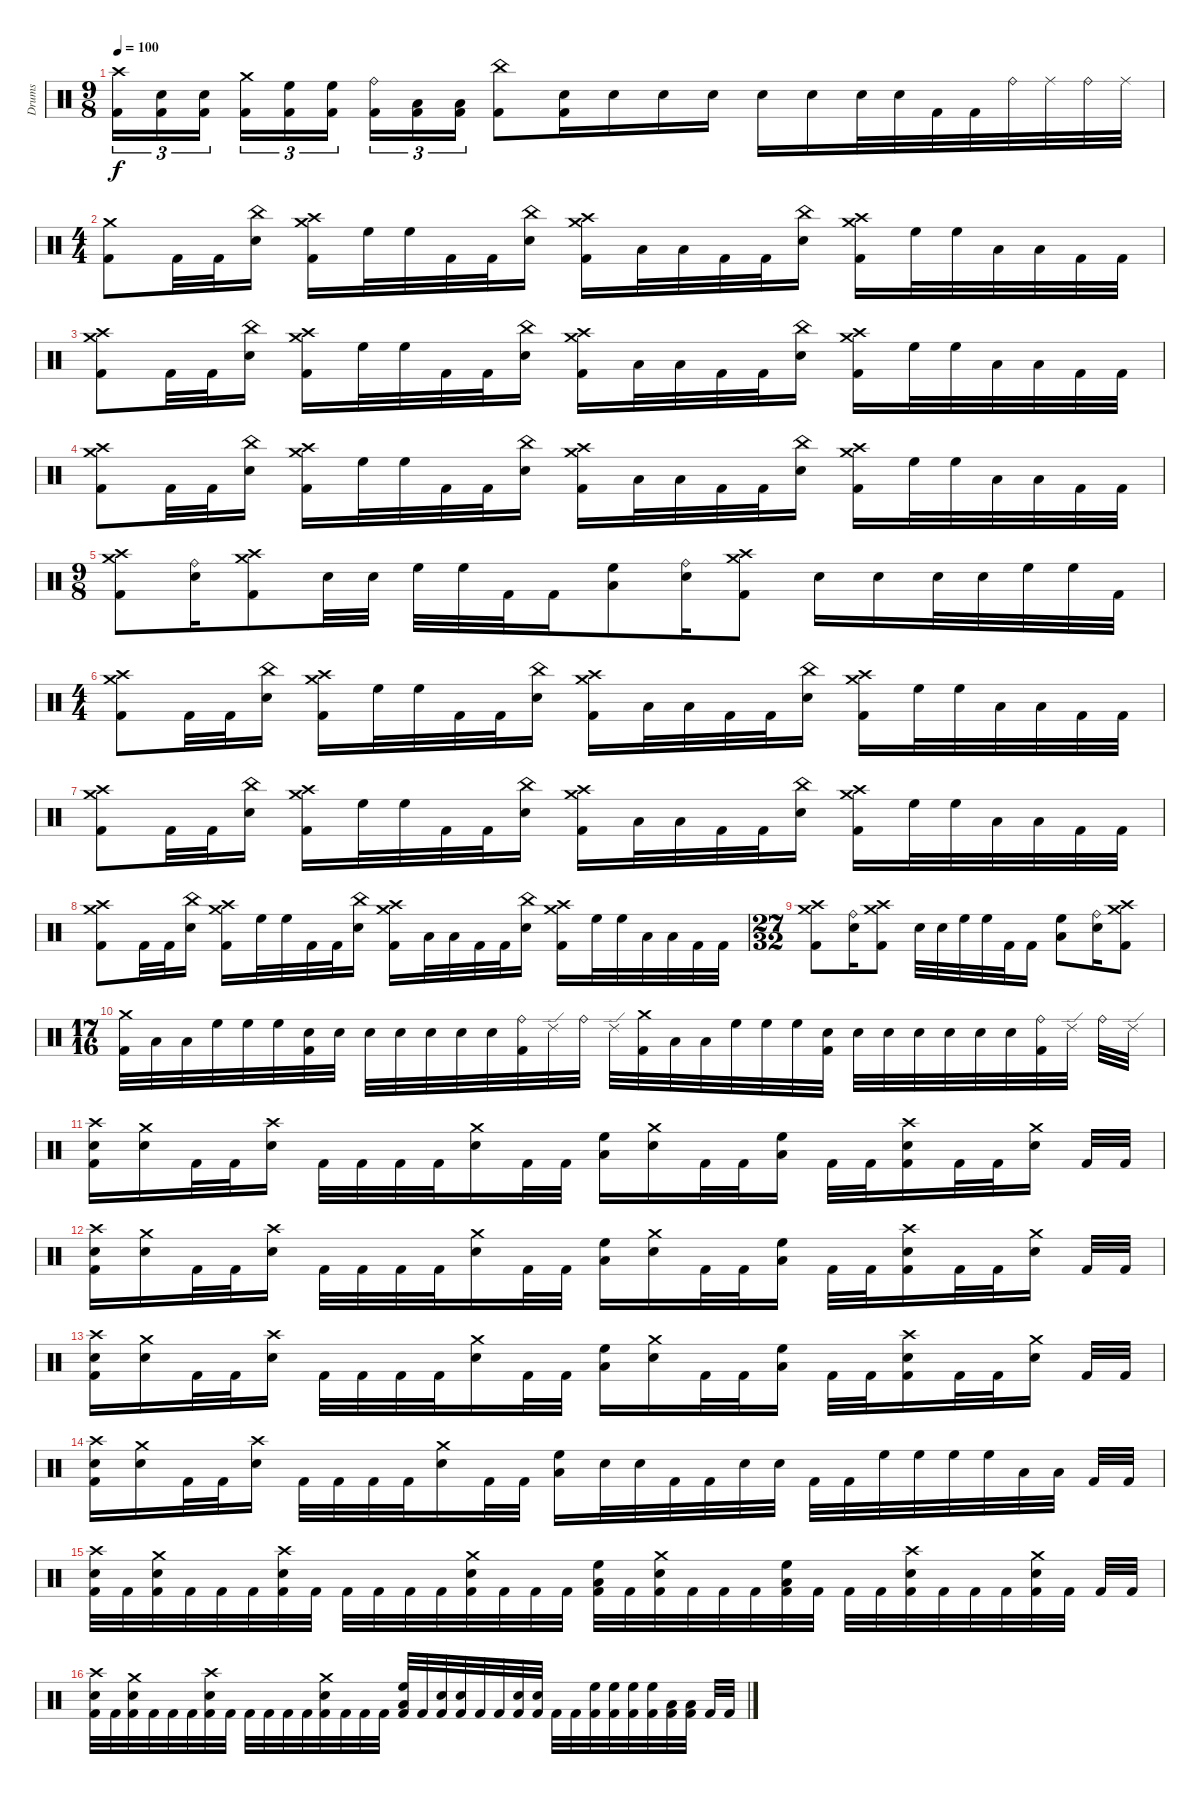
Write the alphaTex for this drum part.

\track ("Drums" "Drums") {instrument percussion}
\staff {score}
\articulation defaults
\ts (9 8)
\tempo 100
\clef neutral
\ks c
("Kick (hit) 2" "Crash high (hit)").16{tu (3 2) dy f} ("Kick (hit) 2" "Electric Snare (hit)").16{tu (3 2)} ("Kick (hit) 2" "Electric Snare (hit)").16{tu (3 2) beam splitsecondary} ("Crash medium (hit)" "Kick (hit) 2").16{tu (3 2)} ("High Floor Tom (hit)" "Kick (hit) 2").16{tu (3 2)} ("High Floor Tom (hit)" "Kick (hit) 2").16{tu (3 2) beam splitsecondary} ("Kick (hit) 2" "Ride (bell)").16{tu (3 2)} ("Low Tom (hit)" "Kick (hit) 2").16{tu (3 2)} ("Low Tom (hit)" "Kick (hit) 2").16{tu (3 2)} ("China (hit)" "Kick (hit) 2").8 ("Electric Snare (hit)" "Kick (hit) 2").16 "Electric Snare (hit)".16 "Electric Snare (hit)".16 "Electric Snare (hit)".16 "Electric Snare (hit)".16 "Electric Snare (hit)".16 "Electric Snare (hit)".32 "Electric Snare (hit)".32 "Kick (hit) 2".32 "Kick (hit) 2".32 "Ride (bell)".32 "Ride (middle)".32 "Ride (bell)".32 "Ride (middle)".32 |
\ts (4 4)
("Crash medium (hit)" "Kick (hit) 2").8 "Kick (hit) 2".32 "Kick (hit) 2".32 ("Electric Snare (hit)" "China (hit)").16 ("Crash high (hit)" "Crash medium (hit)" "Kick (hit) 2").16 "High Floor Tom (hit)".32 "High Floor Tom (hit)".32 "Kick (hit) 2".32 "Kick (hit) 2".32 ("Electric Snare (hit)" "China (hit)").16 ("Crash high (hit)" "Crash medium (hit)" "Kick (hit) 2").16 "Low Tom (hit)".32 "Low Tom (hit)".32 "Kick (hit) 2".32 "Kick (hit) 2".32 ("Electric Snare (hit)" "China (hit)").16 ("Crash high (hit)" "Crash medium (hit)" "Kick (hit) 2").16 "High Floor Tom (hit)".32 "High Floor Tom (hit)".32 "Low Tom (hit)".32 "Low Tom (hit)".32 "Kick (hit) 2".32 "Kick (hit) 2".32 |
("Crash medium (hit)" "Kick (hit) 2" "Crash high (hit)").8 "Kick (hit) 2".32 "Kick (hit) 2".32 ("Electric Snare (hit)" "China (hit)").16 ("Crash high (hit)" "Crash medium (hit)" "Kick (hit) 2").16 "High Floor Tom (hit)".32 "High Floor Tom (hit)".32 "Kick (hit) 2".32 "Kick (hit) 2".32 ("Electric Snare (hit)" "China (hit)").16 ("Crash high (hit)" "Crash medium (hit)" "Kick (hit) 2").16 "Low Tom (hit)".32 "Low Tom (hit)".32 "Kick (hit) 2".32 "Kick (hit) 2".32 ("Electric Snare (hit)" "China (hit)").16 ("Crash high (hit)" "Crash medium (hit)" "Kick (hit) 2").16 "High Floor Tom (hit)".32 "High Floor Tom (hit)".32 "Low Tom (hit)".32 "Low Tom (hit)".32 "Kick (hit) 2".32 "Kick (hit) 2".32 |
("Crash medium (hit)" "Kick (hit) 2" "Crash high (hit)").8 "Kick (hit) 2".32 "Kick (hit) 2".32 ("Electric Snare (hit)" "China (hit)").16 ("Crash high (hit)" "Crash medium (hit)" "Kick (hit) 2").16 "High Floor Tom (hit)".32 "High Floor Tom (hit)".32 "Kick (hit) 2".32 "Kick (hit) 2".32 ("Electric Snare (hit)" "China (hit)").16 ("Crash high (hit)" "Crash medium (hit)" "Kick (hit) 2").16 "Low Tom (hit)".32 "Low Tom (hit)".32 "Kick (hit) 2".32 "Kick (hit) 2".32 ("Electric Snare (hit)" "China (hit)").16 ("Crash high (hit)" "Crash medium (hit)" "Kick (hit) 2").16 "High Floor Tom (hit)".32 "High Floor Tom (hit)".32 "Low Tom (hit)".32 "Low Tom (hit)".32 "Kick (hit) 2".32 "Kick (hit) 2".32 |
\ts (9 8)
("Crash high (hit)" "Crash medium (hit)" "Kick (hit) 2").8 ("Electric Snare (hit)" "Ride (bell)").16 ("Kick (hit) 2" "Crash high (hit)" "Crash medium (hit)").8 "Electric Snare (hit)".32 "Electric Snare (hit)".32 "High Floor Tom (hit)".32 "High Floor Tom (hit)".32 "Kick (hit) 2".32 "Kick (hit) 2".16 ("Low Tom (hit)" "High Floor Tom (hit)").8 ("Electric Snare (hit)" "Ride (bell)").16 ("Kick (hit) 2" "Crash high (hit)" "Crash medium (hit)").8 "Electric Snare (hit)".16 "Electric Snare (hit)".16 "Electric Snare (hit)".32 "Electric Snare (hit)".32 "High Floor Tom (hit)".32 "High Floor Tom (hit)".32 "Kick (hit) 2".32 |
\ts (4 4)
("Crash medium (hit)" "Kick (hit) 2" "Crash high (hit)").8 "Kick (hit) 2".32 "Kick (hit) 2".32 ("Electric Snare (hit)" "China (hit)").16 ("Crash high (hit)" "Crash medium (hit)" "Kick (hit) 2").16 "High Floor Tom (hit)".32 "High Floor Tom (hit)".32 "Kick (hit) 2".32 "Kick (hit) 2".32 ("Electric Snare (hit)" "China (hit)").16 ("Crash high (hit)" "Crash medium (hit)" "Kick (hit) 2").16 "Low Tom (hit)".32 "Low Tom (hit)".32 "Kick (hit) 2".32 "Kick (hit) 2".32 ("Electric Snare (hit)" "China (hit)").16 ("Crash high (hit)" "Crash medium (hit)" "Kick (hit) 2").16 "High Floor Tom (hit)".32 "High Floor Tom (hit)".32 "Low Tom (hit)".32 "Low Tom (hit)".32 "Kick (hit) 2".32 "Kick (hit) 2".32 |
("Crash medium (hit)" "Kick (hit) 2" "Crash high (hit)").8 "Kick (hit) 2".32 "Kick (hit) 2".32 ("Electric Snare (hit)" "China (hit)").16 ("Crash high (hit)" "Crash medium (hit)" "Kick (hit) 2").16 "High Floor Tom (hit)".32 "High Floor Tom (hit)".32 "Kick (hit) 2".32 "Kick (hit) 2".32 ("Electric Snare (hit)" "China (hit)").16 ("Crash high (hit)" "Crash medium (hit)" "Kick (hit) 2").16 "Low Tom (hit)".32 "Low Tom (hit)".32 "Kick (hit) 2".32 "Kick (hit) 2".32 ("Electric Snare (hit)" "China (hit)").16 ("Crash high (hit)" "Crash medium (hit)" "Kick (hit) 2").16 "High Floor Tom (hit)".32 "High Floor Tom (hit)".32 "Low Tom (hit)".32 "Low Tom (hit)".32 "Kick (hit) 2".32 "Kick (hit) 2".32 |
("Crash medium (hit)" "Kick (hit) 2" "Crash high (hit)").8 "Kick (hit) 2".32 "Kick (hit) 2".32 ("Electric Snare (hit)" "China (hit)").16 ("Crash high (hit)" "Crash medium (hit)" "Kick (hit) 2").16 "High Floor Tom (hit)".32 "High Floor Tom (hit)".32 "Kick (hit) 2".32 "Kick (hit) 2".32 ("Electric Snare (hit)" "China (hit)").16 ("Crash high (hit)" "Crash medium (hit)" "Kick (hit) 2").16 "Low Tom (hit)".32 "Low Tom (hit)".32 "Kick (hit) 2".32 "Kick (hit) 2".32 ("Electric Snare (hit)" "China (hit)").16 ("Crash high (hit)" "Crash medium (hit)" "Kick (hit) 2").16 "High Floor Tom (hit)".32 "High Floor Tom (hit)".32 "Low Tom (hit)".32 "Low Tom (hit)".32 "Kick (hit) 2".32 "Kick (hit) 2".32 |
\ts (27 32)
("Crash high (hit)" "Crash medium (hit)" "Kick (hit) 2").8 ("Electric Snare (hit)" "Ride (bell)").16 ("Kick (hit) 2" "Crash high (hit)" "Crash medium (hit)").8 "Electric Snare (hit)".32 "Electric Snare (hit)".32 "High Floor Tom (hit)".32 "High Floor Tom (hit)".32 "Kick (hit) 2".32 "Kick (hit) 2".16 ("Low Tom (hit)" "High Floor Tom (hit)").8 ("Electric Snare (hit)" "Ride (bell)").16 ("Kick (hit) 2" "Crash high (hit)" "Crash medium (hit)").8 |
\ts (17 16)
("Crash medium (hit)" "Kick (hit) 2").32{volume 4} "Low Tom (hit)".32{volume 16} "Low Tom (hit)".32 "High Floor Tom (hit)".32 "High Floor Tom (hit)".32 "High Floor Tom (hit)".32 ("Kick (hit) 2" "Electric Snare (hit)").32 "Electric Snare (hit)".32 "Electric Snare (hit)".32 "Electric Snare (hit)".32 "Electric Snare (hit)".32 "Electric Snare (hit)".32 "Electric Snare (hit)".32 ("Ride (bell)" "Kick (hit) 2").32 "Ride (edge) 2".32 "Ride (bell)".32 "Ride (edge) 2".32 ("Crash medium (hit)" "Kick (hit) 2").32 "Low Tom (hit)".32 "Low Tom (hit)".32 "High Floor Tom (hit)".32 "High Floor Tom (hit)".32 "High Floor Tom (hit)".32 ("Kick (hit) 2" "Electric Snare (hit)").32 "Electric Snare (hit)".32 "Electric Snare (hit)".32 "Electric Snare (hit)".32 "Electric Snare (hit)".32 "Electric Snare (hit)".32 "Electric Snare (hit)".32 ("Ride (bell)" "Kick (hit) 2").32 "Ride (edge) 2".32 "Ride (bell)".32 "Ride (edge) 2".32 |
("Crash high (hit)" "Kick (hit) 2" "Electric Snare (hit)").16 ("Electric Snare (hit)" "Crash medium (hit)").16 "Kick (hit) 2".32 "Kick (hit) 2".32 ("Electric Snare (hit)" "Crash high (hit)").16 "Kick (hit) 2".32 "Kick (hit) 2".32 "Kick (hit) 2".32 "Kick (hit) 2".32 ("Electric Snare (hit)" "Crash medium (hit)").16 "Kick (hit) 2".32 "Kick (hit) 2".32 ("High Floor Tom (hit)" "Low Tom (hit)").16 ("Electric Snare (hit)" "Crash medium (hit)").16 "Kick (hit) 2".32 "Kick (hit) 2".32 ("High Floor Tom (hit)" "Low Tom (hit)").16 "Kick (hit) 2".32 "Kick (hit) 2".32 ("Crash high (hit)" "Kick (hit) 2" "Electric Snare (hit)").16 "Kick (hit) 2".32 "Kick (hit) 2".32 ("Electric Snare (hit)" "Crash medium (hit)").16 "Kick (hit) 2".32 "Kick (hit) 2".32 |
("Crash high (hit)" "Kick (hit) 2" "Electric Snare (hit)").16 ("Electric Snare (hit)" "Crash medium (hit)").16 "Kick (hit) 2".32 "Kick (hit) 2".32 ("Electric Snare (hit)" "Crash high (hit)").16 "Kick (hit) 2".32 "Kick (hit) 2".32 "Kick (hit) 2".32 "Kick (hit) 2".32 ("Electric Snare (hit)" "Crash medium (hit)").16 "Kick (hit) 2".32 "Kick (hit) 2".32 ("High Floor Tom (hit)" "Low Tom (hit)").16 ("Electric Snare (hit)" "Crash medium (hit)").16 "Kick (hit) 2".32 "Kick (hit) 2".32 ("High Floor Tom (hit)" "Low Tom (hit)").16 "Kick (hit) 2".32 "Kick (hit) 2".32 ("Crash high (hit)" "Kick (hit) 2" "Electric Snare (hit)").16 "Kick (hit) 2".32 "Kick (hit) 2".32 ("Electric Snare (hit)" "Crash medium (hit)").16 "Kick (hit) 2".32 "Kick (hit) 2".32 |
("Crash high (hit)" "Kick (hit) 2" "Electric Snare (hit)").16 ("Electric Snare (hit)" "Crash medium (hit)").16 "Kick (hit) 2".32 "Kick (hit) 2".32 ("Electric Snare (hit)" "Crash high (hit)").16 "Kick (hit) 2".32 "Kick (hit) 2".32 "Kick (hit) 2".32 "Kick (hit) 2".32 ("Electric Snare (hit)" "Crash medium (hit)").16 "Kick (hit) 2".32 "Kick (hit) 2".32 ("High Floor Tom (hit)" "Low Tom (hit)").16 ("Electric Snare (hit)" "Crash medium (hit)").16 "Kick (hit) 2".32 "Kick (hit) 2".32 ("High Floor Tom (hit)" "Low Tom (hit)").16 "Kick (hit) 2".32 "Kick (hit) 2".32 ("Crash high (hit)" "Kick (hit) 2" "Electric Snare (hit)").16 "Kick (hit) 2".32 "Kick (hit) 2".32 ("Electric Snare (hit)" "Crash medium (hit)").16 "Kick (hit) 2".32 "Kick (hit) 2".32 |
("Crash high (hit)" "Kick (hit) 2" "Electric Snare (hit)").16 ("Electric Snare (hit)" "Crash medium (hit)").16 "Kick (hit) 2".32 "Kick (hit) 2".32 ("Electric Snare (hit)" "Crash high (hit)").16 "Kick (hit) 2".32 "Kick (hit) 2".32 "Kick (hit) 2".32 "Kick (hit) 2".32 ("Electric Snare (hit)" "Crash medium (hit)").16 "Kick (hit) 2".32 "Kick (hit) 2".32 ("High Floor Tom (hit)" "Low Tom (hit)").16 "Electric Snare (hit)".32 "Electric Snare (hit)".32 "Kick (hit) 2".32 "Kick (hit) 2".32 "Electric Snare (hit)".32 "Electric Snare (hit)".32 "Kick (hit) 2".32 "Kick (hit) 2".32 "High Floor Tom (hit)".32 "High Floor Tom (hit)".32 "High Floor Tom (hit)".32 "High Floor Tom (hit)".32 "Low Tom (hit)".32 "Low Tom (hit)".32 "Kick (hit) 2".32 "Kick (hit) 2".32 |
("Crash high (hit)" "Kick (hit) 2" "Electric Snare (hit)").32 "Kick (hit) 2".32 ("Electric Snare (hit)" "Crash medium (hit)" "Kick (hit) 2").32 "Kick (hit) 2".32 "Kick (hit) 2".32 "Kick (hit) 2".32 ("Electric Snare (hit)" "Crash high (hit)" "Kick (hit) 2").32 "Kick (hit) 2".32 "Kick (hit) 2".32 "Kick (hit) 2".32 "Kick (hit) 2".32 "Kick (hit) 2".32 ("Electric Snare (hit)" "Crash medium (hit)" "Kick (hit) 2").32 "Kick (hit) 2".32 "Kick (hit) 2".32 "Kick (hit) 2".32 ("High Floor Tom (hit)" "Low Tom (hit)" "Kick (hit) 2").32 "Kick (hit) 2".32 ("Electric Snare (hit)" "Crash medium (hit)" "Kick (hit) 2").32 "Kick (hit) 2".32 "Kick (hit) 2".32 "Kick (hit) 2".32 ("High Floor Tom (hit)" "Low Tom (hit)" "Kick (hit) 2").32 "Kick (hit) 2".32 "Kick (hit) 2".32 "Kick (hit) 2".32 ("Crash high (hit)" "Kick (hit) 2" "Electric Snare (hit)").32 "Kick (hit) 2".32 "Kick (hit) 2".32 "Kick (hit) 2".32 ("Electric Snare (hit)" "Crash medium (hit)" "Kick (hit) 2").32 "Kick (hit) 2".32 "Kick (hit) 2".32 "Kick (hit) 2".32 |
("Crash high (hit)" "Kick (hit) 2" "Electric Snare (hit)").32 "Kick (hit) 2".32 ("Electric Snare (hit)" "Crash medium (hit)" "Kick (hit) 2").32 "Kick (hit) 2".32 "Kick (hit) 2".32 "Kick (hit) 2".32 ("Electric Snare (hit)" "Crash high (hit)" "Kick (hit) 2").32 "Kick (hit) 2".32 "Kick (hit) 2".32 "Kick (hit) 2".32 "Kick (hit) 2".32 "Kick (hit) 2".32 ("Electric Snare (hit)" "Crash medium (hit)" "Kick (hit) 2").32 "Kick (hit) 2".32 "Kick (hit) 2".32 "Kick (hit) 2".32 ("High Floor Tom (hit)" "Low Tom (hit)" "Kick (hit) 2").32 "Kick (hit) 2".32 ("Electric Snare (hit)" "Kick (hit) 2").32 ("Electric Snare (hit)" "Kick (hit) 2").32 "Kick (hit) 2".32 "Kick (hit) 2".32 ("Electric Snare (hit)" "Kick (hit) 2").32 ("Electric Snare (hit)" "Kick (hit) 2").32 "Kick (hit) 2".32 "Kick (hit) 2".32 ("High Floor Tom (hit)" "Kick (hit) 2").32 ("High Floor Tom (hit)" "Kick (hit) 2").32 ("High Floor Tom (hit)" "Kick (hit) 2").32 ("High Floor Tom (hit)" "Kick (hit) 2").32 ("Low Tom (hit)" "Kick (hit) 2").32 ("Low Tom (hit)" "Kick (hit) 2").32 "Kick (hit) 2".32 "Kick (hit) 2".32
